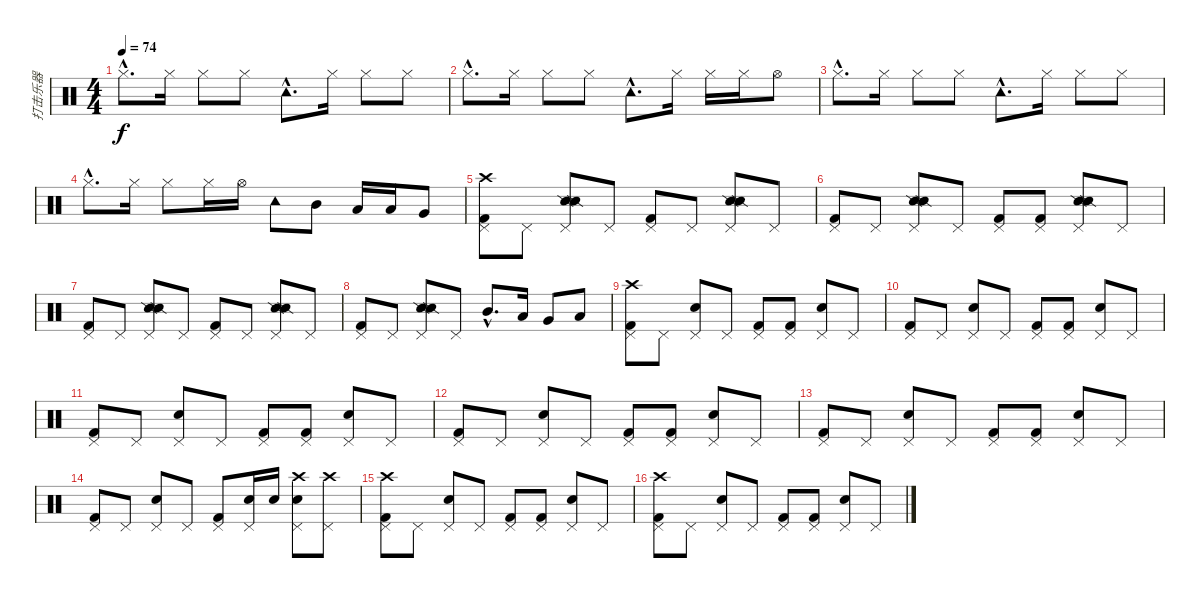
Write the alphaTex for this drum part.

\track ("打击乐器" "打击乐器") {instrument percussion}
\staff {score}
\articulation defaults
\ts (4 4)
\tempo 74
\clef neutral
\ks c "Hi-Hat (closed)"{hac}.8{d dy f} "Hi-Hat (closed)".16 "Hi-Hat (closed)".8 "Hi-Hat (closed)".8 "Tambourine (hit)"{hac}.8{d} "Hi-Hat (closed)".16 "Hi-Hat (closed)".8 "Hi-Hat (closed)".8
|
"Hi-Hat (closed)"{hac}.8{d} "Hi-Hat (closed)".16 "Hi-Hat (closed)".8 "Hi-Hat (closed)".8 "Tambourine (hit)"{hac}.8{d} "Hi-Hat (closed)".16 "Hi-Hat (closed)".16 "Hi-Hat (closed)".16 "Hi-Hat (open)".8 |
"Hi-Hat (closed)"{hac}.8{d} "Hi-Hat (closed)".16 "Hi-Hat (closed)".8 "Hi-Hat (closed)".8 "Tambourine (hit)"{hac}.8{d} "Hi-Hat (closed)".16 "Hi-Hat (closed)".8 "Hi-Hat (closed)".8 |
"Hi-Hat (closed)"{hac}.8{d} "Hi-Hat (closed)".16 "Hi-Hat (closed)".8 "Hi-Hat (closed)".16 "Hi-Hat (open)".16 "Tambourine (hit)".8 "Mid Tom (hit)".8 "Low Tom (hit)".16 "Low Tom (hit)".16 "Very Low Tom (hit)".8 |
("Pedal Hi-Hat (hit)" "Kick (hit) 2" "Crash high (hit)").8 "Pedal Hi-Hat (hit)".8 ("Pedal Hi-Hat (hit)" "Snare (side stick) 2" "Snare (side stick) 2").8 "Pedal Hi-Hat (hit)".8 ("Pedal Hi-Hat (hit)" "Kick (hit) 2").8 "Pedal Hi-Hat (hit)".8 ("Pedal Hi-Hat (hit)" "Snare (side stick) 2" "Snare (side stick) 2").8 "Pedal Hi-Hat (hit)".8 |
("Pedal Hi-Hat (hit)" "Kick (hit) 2").8 "Pedal Hi-Hat (hit)".8 ("Pedal Hi-Hat (hit)" "Snare (side stick) 2" "Snare (side stick) 2").8 "Pedal Hi-Hat (hit)".8 ("Pedal Hi-Hat (hit)" "Kick (hit) 2").8 ("Pedal Hi-Hat (hit)" "Kick (hit) 2").8 ("Pedal Hi-Hat (hit)" "Snare (side stick) 2" "Snare (side stick) 2").8 "Pedal Hi-Hat (hit)".8 |
("Pedal Hi-Hat (hit)" "Kick (hit) 2").8 "Pedal Hi-Hat (hit)".8 ("Pedal Hi-Hat (hit)" "Snare (side stick) 2" "Snare (side stick) 2").8 "Pedal Hi-Hat (hit)".8 ("Pedal Hi-Hat (hit)" "Kick (hit) 2").8 "Pedal Hi-Hat (hit)".8 ("Pedal Hi-Hat (hit)" "Snare (side stick) 2" "Snare (side stick) 2").8 "Pedal Hi-Hat (hit)".8 |
("Pedal Hi-Hat (hit)" "Kick (hit) 2").8 "Pedal Hi-Hat (hit)".8 ("Pedal Hi-Hat (hit)" "Snare (side stick) 2" "Snare (side stick) 2").8 "Pedal Hi-Hat (hit)".8 "Mid Tom (hit)"{hac}.8{d} "Low Tom (hit)".16 "Very Low Tom (hit)".8 "Low Floor Tom (hit)".8 |
("Pedal Hi-Hat (hit)" "Kick (hit) 2" "Crash high (hit)").8 "Pedal Hi-Hat (hit)".8 ("Pedal Hi-Hat (hit)" "Electric Snare (hit)").8 "Pedal Hi-Hat (hit)".8 ("Pedal Hi-Hat (hit)" "Kick (hit) 2").8 ("Pedal Hi-Hat (hit)" "Kick (hit) 2").8 ("Pedal Hi-Hat (hit)" "Electric Snare (hit)").8 "Pedal Hi-Hat (hit)".8 |
("Pedal Hi-Hat (hit)" "Kick (hit) 2").8 "Pedal Hi-Hat (hit)".8 ("Pedal Hi-Hat (hit)" "Electric Snare (hit)").8 "Pedal Hi-Hat (hit)".8 ("Pedal Hi-Hat (hit)" "Kick (hit) 2").8 ("Pedal Hi-Hat (hit)" "Kick (hit) 2").8 ("Pedal Hi-Hat (hit)" "Electric Snare (hit)").8 "Pedal Hi-Hat (hit)".8 |
("Pedal Hi-Hat (hit)" "Kick (hit) 2").8 "Pedal Hi-Hat (hit)".8 ("Pedal Hi-Hat (hit)" "Electric Snare (hit)").8 "Pedal Hi-Hat (hit)".8 ("Pedal Hi-Hat (hit)" "Kick (hit) 2").8 ("Pedal Hi-Hat (hit)" "Kick (hit) 2").8 ("Pedal Hi-Hat (hit)" "Electric Snare (hit)").8 "Pedal Hi-Hat (hit)".8 |
("Pedal Hi-Hat (hit)" "Kick (hit) 2").8 "Pedal Hi-Hat (hit)".8 ("Pedal Hi-Hat (hit)" "Electric Snare (hit)").8 "Pedal Hi-Hat (hit)".8 ("Pedal Hi-Hat (hit)" "Kick (hit) 2").8 ("Pedal Hi-Hat (hit)" "Kick (hit) 2").8 ("Pedal Hi-Hat (hit)" "Electric Snare (hit)").8 "Pedal Hi-Hat (hit)".8 |
("Pedal Hi-Hat (hit)" "Kick (hit) 2").8 "Pedal Hi-Hat (hit)".8 ("Pedal Hi-Hat (hit)" "Electric Snare (hit)").8 "Pedal Hi-Hat (hit)".8 ("Pedal Hi-Hat (hit)" "Kick (hit) 2").8 ("Pedal Hi-Hat (hit)" "Kick (hit) 2").8 ("Pedal Hi-Hat (hit)" "Electric Snare (hit)").8 "Pedal Hi-Hat (hit)".8 |
("Pedal Hi-Hat (hit)" "Kick (hit) 2").8 "Pedal Hi-Hat (hit)".8 ("Pedal Hi-Hat (hit)" "Electric Snare (hit)").8 "Pedal Hi-Hat (hit)".8 ("Pedal Hi-Hat (hit)" "Kick (hit) 2").8 ("Pedal Hi-Hat (hit)" "Electric Snare (hit)").16 "Electric Snare (hit)".16 ("Pedal Hi-Hat (hit)" "Electric Snare (hit)" "Crash high (hit)").8 ("Pedal Hi-Hat (hit)" "Crash high (hit)").8 |
("Pedal Hi-Hat (hit)" "Kick (hit) 2" "Crash high (hit)").8 "Pedal Hi-Hat (hit)".8 ("Pedal Hi-Hat (hit)" "Electric Snare (hit)").8 "Pedal Hi-Hat (hit)".8 ("Pedal Hi-Hat (hit)" "Kick (hit) 2").8 ("Pedal Hi-Hat (hit)" "Kick (hit) 2").8 ("Pedal Hi-Hat (hit)" "Electric Snare (hit)").8 "Pedal Hi-Hat (hit)".8 |
("Pedal Hi-Hat (hit)" "Kick (hit) 2" "Crash high (hit)").8 "Pedal Hi-Hat (hit)".8 ("Pedal Hi-Hat (hit)" "Electric Snare (hit)").8 "Pedal Hi-Hat (hit)".8 ("Pedal Hi-Hat (hit)" "Kick (hit) 2").8 ("Pedal Hi-Hat (hit)" "Kick (hit) 2").8 ("Pedal Hi-Hat (hit)" "Electric Snare (hit)").8 "Pedal Hi-Hat (hit)".8
